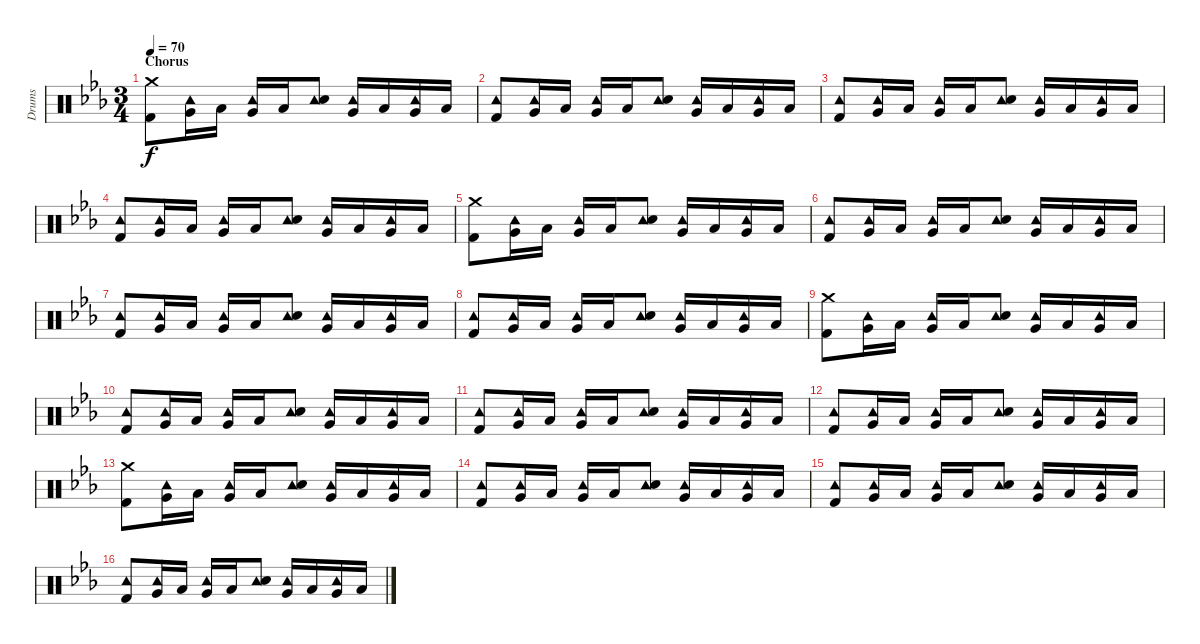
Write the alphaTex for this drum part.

\track ("Drums" "Drums") {instrument percussion}
\staff {score}
\articulation defaults
\ts (3 4)
\section ("" "Chorus")
\tempo 70
\clef neutral
\ks cminor
("Crash medium (hit)" "Kick (hit) 2").8{dy f} ("Tambourine (hit)" "Very Low Tom (hit)").16 "Low Floor Tom (hit)".16 ("Tambourine (hit)" "Very Low Tom (hit)").16 "Low Floor Tom (hit)".16 ("Tambourine (hit)" "Snare (hit) 2").8 ("Tambourine (hit)" "Very Low Tom (hit)").16 "Low Floor Tom (hit)".16 ("Tambourine (hit)" "Very Low Tom (hit)").16 "Low Floor Tom (hit)".16 |
("Tambourine (hit)" "Kick (hit) 2").8 ("Tambourine (hit)" "Very Low Tom (hit)").16 "Low Floor Tom (hit)".16 ("Tambourine (hit)" "Very Low Tom (hit)").16 "Low Floor Tom (hit)".16 ("Tambourine (hit)" "Snare (hit) 2").8 ("Tambourine (hit)" "Very Low Tom (hit)").16 "Low Floor Tom (hit)".16 ("Tambourine (hit)" "Very Low Tom (hit)").16 "Low Floor Tom (hit)".16 |
("Tambourine (hit)" "Kick (hit) 2").8 ("Tambourine (hit)" "Very Low Tom (hit)").16 "Low Floor Tom (hit)".16 ("Tambourine (hit)" "Very Low Tom (hit)").16 "Low Floor Tom (hit)".16 ("Tambourine (hit)" "Snare (hit) 2").8 ("Tambourine (hit)" "Very Low Tom (hit)").16 "Low Floor Tom (hit)".16 ("Tambourine (hit)" "Very Low Tom (hit)").16 "Low Floor Tom (hit)".16 |
("Tambourine (hit)" "Kick (hit) 2").8 ("Tambourine (hit)" "Very Low Tom (hit)").16 "Low Floor Tom (hit)".16 ("Tambourine (hit)" "Very Low Tom (hit)").16 "Low Floor Tom (hit)".16 ("Tambourine (hit)" "Snare (hit) 2").8 ("Tambourine (hit)" "Very Low Tom (hit)").16 "Low Floor Tom (hit)".16 ("Tambourine (hit)" "Very Low Tom (hit)").16 "Low Floor Tom (hit)".16 |
("Crash medium (hit)" "Kick (hit) 2").8 ("Tambourine (hit)" "Very Low Tom (hit)").16 "Low Floor Tom (hit)".16 ("Tambourine (hit)" "Very Low Tom (hit)").16 "Low Floor Tom (hit)".16 ("Tambourine (hit)" "Snare (hit) 2").8 ("Tambourine (hit)" "Very Low Tom (hit)").16 "Low Floor Tom (hit)".16 ("Tambourine (hit)" "Very Low Tom (hit)").16 "Low Floor Tom (hit)".16 |
("Tambourine (hit)" "Kick (hit) 2").8 ("Tambourine (hit)" "Very Low Tom (hit)").16 "Low Floor Tom (hit)".16 ("Tambourine (hit)" "Very Low Tom (hit)").16 "Low Floor Tom (hit)".16 ("Tambourine (hit)" "Snare (hit) 2").8 ("Tambourine (hit)" "Very Low Tom (hit)").16 "Low Floor Tom (hit)".16 ("Tambourine (hit)" "Very Low Tom (hit)").16 "Low Floor Tom (hit)".16 |
("Tambourine (hit)" "Kick (hit) 2").8 ("Tambourine (hit)" "Very Low Tom (hit)").16 "Low Floor Tom (hit)".16 ("Tambourine (hit)" "Very Low Tom (hit)").16 "Low Floor Tom (hit)".16 ("Tambourine (hit)" "Snare (hit) 2").8 ("Tambourine (hit)" "Very Low Tom (hit)").16 "Low Floor Tom (hit)".16 ("Tambourine (hit)" "Very Low Tom (hit)").16 "Low Floor Tom (hit)".16 |
("Tambourine (hit)" "Kick (hit) 2").8 ("Tambourine (hit)" "Very Low Tom (hit)").16 "Low Floor Tom (hit)".16 ("Tambourine (hit)" "Very Low Tom (hit)").16 "Low Floor Tom (hit)".16 ("Tambourine (hit)" "Snare (hit) 2").8 ("Tambourine (hit)" "Very Low Tom (hit)").16 "Low Floor Tom (hit)".16 ("Tambourine (hit)" "Very Low Tom (hit)").16 "Low Floor Tom (hit)".16 |
("Crash medium (hit)" "Kick (hit) 2").8 ("Tambourine (hit)" "Very Low Tom (hit)").16 "Low Floor Tom (hit)".16 ("Tambourine (hit)" "Very Low Tom (hit)").16 "Low Floor Tom (hit)".16 ("Tambourine (hit)" "Snare (hit) 2").8 ("Tambourine (hit)" "Very Low Tom (hit)").16 "Low Floor Tom (hit)".16 ("Tambourine (hit)" "Very Low Tom (hit)").16 "Low Floor Tom (hit)".16 |
("Tambourine (hit)" "Kick (hit) 2").8 ("Tambourine (hit)" "Very Low Tom (hit)").16 "Low Floor Tom (hit)".16 ("Tambourine (hit)" "Very Low Tom (hit)").16 "Low Floor Tom (hit)".16 ("Tambourine (hit)" "Snare (hit) 2").8 ("Tambourine (hit)" "Very Low Tom (hit)").16 "Low Floor Tom (hit)".16 ("Tambourine (hit)" "Very Low Tom (hit)").16 "Low Floor Tom (hit)".16 |
("Tambourine (hit)" "Kick (hit) 2").8 ("Tambourine (hit)" "Very Low Tom (hit)").16 "Low Floor Tom (hit)".16 ("Tambourine (hit)" "Very Low Tom (hit)").16 "Low Floor Tom (hit)".16 ("Tambourine (hit)" "Snare (hit) 2").8 ("Tambourine (hit)" "Very Low Tom (hit)").16 "Low Floor Tom (hit)".16 ("Tambourine (hit)" "Very Low Tom (hit)").16 "Low Floor Tom (hit)".16 |
("Tambourine (hit)" "Kick (hit) 2").8 ("Tambourine (hit)" "Very Low Tom (hit)").16 "Low Floor Tom (hit)".16 ("Tambourine (hit)" "Very Low Tom (hit)").16 "Low Floor Tom (hit)".16 ("Tambourine (hit)" "Snare (hit) 2").8 ("Tambourine (hit)" "Very Low Tom (hit)").16 "Low Floor Tom (hit)".16 ("Tambourine (hit)" "Very Low Tom (hit)").16 "Low Floor Tom (hit)".16 |
("Crash medium (hit)" "Kick (hit) 2").8 ("Tambourine (hit)" "Very Low Tom (hit)").16 "Low Floor Tom (hit)".16 ("Tambourine (hit)" "Very Low Tom (hit)").16 "Low Floor Tom (hit)".16 ("Tambourine (hit)" "Snare (hit) 2").8 ("Tambourine (hit)" "Very Low Tom (hit)").16 "Low Floor Tom (hit)".16 ("Tambourine (hit)" "Very Low Tom (hit)").16 "Low Floor Tom (hit)".16 |
("Tambourine (hit)" "Kick (hit) 2").8 ("Tambourine (hit)" "Very Low Tom (hit)").16 "Low Floor Tom (hit)".16 ("Tambourine (hit)" "Very Low Tom (hit)").16 "Low Floor Tom (hit)".16 ("Tambourine (hit)" "Snare (hit) 2").8 ("Tambourine (hit)" "Very Low Tom (hit)").16 "Low Floor Tom (hit)".16 ("Tambourine (hit)" "Very Low Tom (hit)").16 "Low Floor Tom (hit)".16 |
("Tambourine (hit)" "Kick (hit) 2").8 ("Tambourine (hit)" "Very Low Tom (hit)").16 "Low Floor Tom (hit)".16 ("Tambourine (hit)" "Very Low Tom (hit)").16 "Low Floor Tom (hit)".16 ("Tambourine (hit)" "Snare (hit) 2").8 ("Tambourine (hit)" "Very Low Tom (hit)").16 "Low Floor Tom (hit)".16 ("Tambourine (hit)" "Very Low Tom (hit)").16 "Low Floor Tom (hit)".16 |
("Tambourine (hit)" "Kick (hit) 2").8 ("Tambourine (hit)" "Very Low Tom (hit)").16 "Low Floor Tom (hit)".16 ("Tambourine (hit)" "Very Low Tom (hit)").16 "Low Floor Tom (hit)".16 ("Tambourine (hit)" "Snare (hit) 2").8 ("Tambourine (hit)" "Very Low Tom (hit)").16 "Low Floor Tom (hit)".16 ("Tambourine (hit)" "Very Low Tom (hit)").16 "Low Floor Tom (hit)".16
